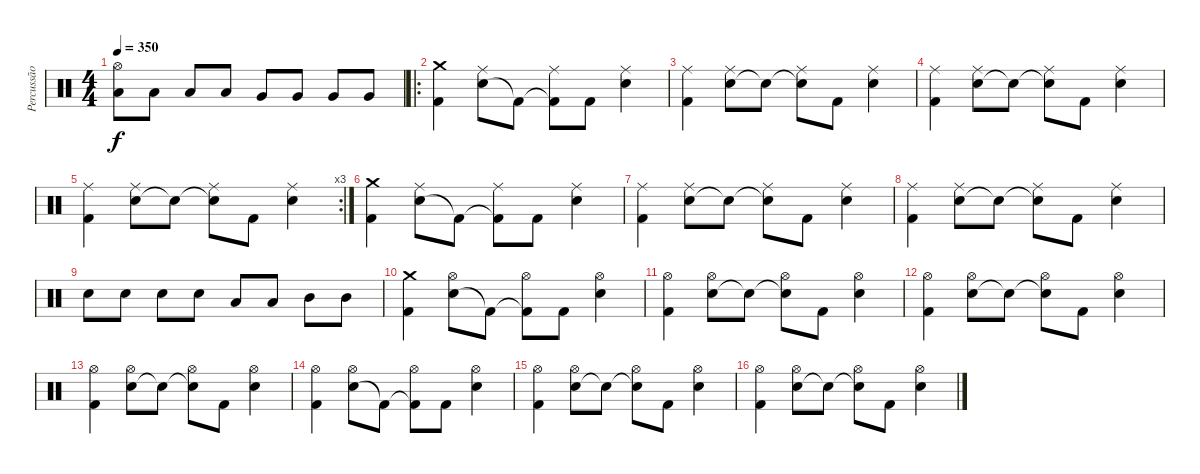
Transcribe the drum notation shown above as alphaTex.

\track ("Percussão" "Percussão") {instrument percussion}
\staff {score}
\articulation defaults
\ts (4 4)
\tempo 350
\clef neutral
\ks c
("Low Tom (hit)" "Hi-Hat (open)").8{dy f} "Low Tom (hit)".8 "Low Tom (hit)".8 "Low Tom (hit)".8 "Very Low Tom (hit)".8 "Very Low Tom (hit)".8 "Very Low Tom (hit)".8 "Very Low Tom (hit)".8 |
\ro
("Kick (hit) 2" "Crash medium (hit)").4 ("Electric Snare (hit)" "Ride (middle)").8 "Kick (hit) 2"{t}.8 ("Kick (hit) 2"{t} "Ride (middle)").8 "Kick (hit) 2".8 ("Electric Snare (hit)" "Ride (middle)").4 |
("Kick (hit) 2" "Ride (middle)").4 ("Electric Snare (hit)" "Ride (middle)").8 "Snare (hit)"{t}.8 ("Snare (hit)"{t} "Ride (middle)").8 "Kick (hit) 2".8 ("Electric Snare (hit)" "Ride (middle)").4 |
("Kick (hit) 2" "Ride (middle)").4 ("Electric Snare (hit)" "Ride (middle)").8 "Snare (hit)"{t}.8 ("Snare (hit)"{t} "Ride (middle)").8 "Kick (hit) 2".8 ("Electric Snare (hit)" "Ride (middle)").4 |
\rc 3
("Kick (hit) 2" "Ride (middle)").4 ("Electric Snare (hit)" "Ride (middle)").8 "Snare (hit)"{t}.8 ("Snare (hit)"{t} "Ride (middle)").8 "Kick (hit) 2".8 ("Electric Snare (hit)" "Ride (middle)").4 |
("Kick (hit) 2" "Crash medium (hit)").4 ("Electric Snare (hit)" "Ride (middle)").8 "Kick (hit) 2"{t}.8 ("Kick (hit) 2"{t} "Ride (middle)").8 "Kick (hit) 2".8 ("Electric Snare (hit)" "Ride (middle)").4 |
("Kick (hit) 2" "Ride (middle)").4 ("Electric Snare (hit)" "Ride (middle)").8 "Snare (hit)"{t}.8 ("Snare (hit)"{t} "Ride (middle)").8 "Kick (hit) 2".8 ("Electric Snare (hit)" "Ride (middle)").4 |
("Kick (hit) 2" "Ride (middle)").4 ("Electric Snare (hit)" "Ride (middle)").8 "Snare (hit)"{t}.8 ("Snare (hit)"{t} "Ride (middle)").8 "Kick (hit) 2".8 ("Electric Snare (hit)" "Ride (middle)").4 |
"Electric Snare (hit)".8 "Electric Snare (hit)".8 "Electric Snare (hit)".8 "Electric Snare (hit)".8 "Low Tom (hit)".8 "Low Tom (hit)".8 "Mid Tom (hit)".8 "Mid Tom (hit)".8 |
("Kick (hit) 2" "Crash medium (hit)").4{volume 13} ("Electric Snare (hit)" "Hi-Hat (open)").8 "Kick (hit) 2"{t}.8 ("Kick (hit) 2"{t} "Hi-Hat (open)").8 "Kick (hit) 2".8 ("Electric Snare (hit)" "Hi-Hat (open)").4 |
("Kick (hit) 2" "Hi-Hat (open)").4 ("Electric Snare (hit)" "Hi-Hat (open)").8 "Snare (hit)"{t}.8 ("Snare (hit)"{t} "Hi-Hat (open)").8 "Kick (hit) 2".8 ("Electric Snare (hit)" "Hi-Hat (open)").4 |
("Kick (hit) 2" "Hi-Hat (open)").4 ("Electric Snare (hit)" "Hi-Hat (open)").8 "Snare (hit)"{t}.8 ("Snare (hit)"{t} "Hi-Hat (open)").8 "Kick (hit) 2".8 ("Electric Snare (hit)" "Hi-Hat (open)").4 |
("Kick (hit) 2" "Hi-Hat (open)").4 ("Electric Snare (hit)" "Hi-Hat (open)").8 "Snare (hit)"{t}.8 ("Snare (hit)"{t} "Hi-Hat (open)").8 "Kick (hit) 2".8 ("Electric Snare (hit)" "Hi-Hat (open)").4 |
("Kick (hit) 2" "Hi-Hat (open)").4 ("Electric Snare (hit)" "Hi-Hat (open)").8 "Kick (hit) 2"{t}.8 ("Kick (hit) 2"{t} "Hi-Hat (open)").8 "Kick (hit) 2".8 ("Electric Snare (hit)" "Hi-Hat (open)").4 |
("Kick (hit) 2" "Hi-Hat (open)").4 ("Electric Snare (hit)" "Hi-Hat (open)").8 "Snare (hit)"{t}.8 ("Snare (hit)"{t} "Hi-Hat (open)").8 "Kick (hit) 2".8 ("Electric Snare (hit)" "Hi-Hat (open)").4 |
("Kick (hit) 2" "Hi-Hat (open)").4 ("Electric Snare (hit)" "Hi-Hat (open)").8 "Snare (hit)"{t}.8 ("Snare (hit)"{t} "Hi-Hat (open)").8 "Kick (hit) 2".8 ("Electric Snare (hit)" "Hi-Hat (open)").4
